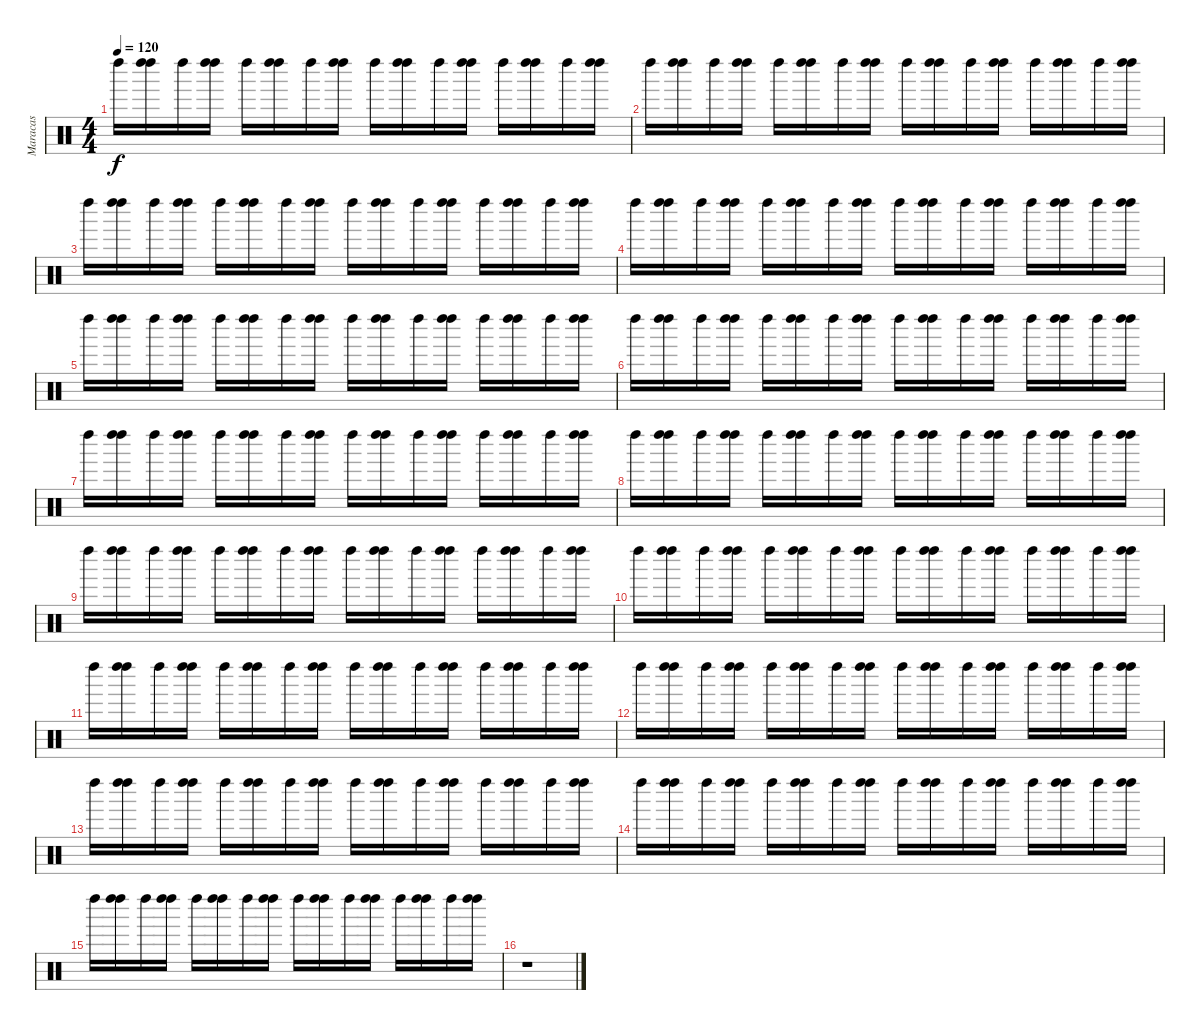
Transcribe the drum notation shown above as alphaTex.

\track ("Maracas" "Maracas") {instrument percussion}
\staff {score}
\articulation defaults
\ts (4 4)
\tempo 120
\clef neutral
\ks c "Left Maraca (hit)".16{dy f}
("Left Maraca (hit)" "Left Maraca (hit)").16 "Left Maraca (hit)".16 ("Left Maraca (hit)" "Left Maraca (hit)").16 "Left Maraca (hit)".16 ("Left Maraca (hit)" "Left Maraca (hit)").16 "Left Maraca (hit)".16 ("Left Maraca (hit)" "Left Maraca (hit)").16 "Left Maraca (hit)".16 ("Left Maraca (hit)" "Left Maraca (hit)").16 "Left Maraca (hit)".16 ("Left Maraca (hit)" "Left Maraca (hit)").16 "Left Maraca (hit)".16 ("Left Maraca (hit)" "Left Maraca (hit)").16 "Left Maraca (hit)".16 ("Left Maraca (hit)" "Left Maraca (hit)").16 |
"Left Maraca (hit)".16 ("Left Maraca (hit)" "Left Maraca (hit)").16 "Left Maraca (hit)".16 ("Left Maraca (hit)" "Left Maraca (hit)").16 "Left Maraca (hit)".16 ("Left Maraca (hit)" "Left Maraca (hit)").16 "Left Maraca (hit)".16 ("Left Maraca (hit)" "Left Maraca (hit)").16 "Left Maraca (hit)".16 ("Left Maraca (hit)" "Left Maraca (hit)").16 "Left Maraca (hit)".16 ("Left Maraca (hit)" "Left Maraca (hit)").16 "Left Maraca (hit)".16 ("Left Maraca (hit)" "Left Maraca (hit)").16 "Left Maraca (hit)".16 ("Left Maraca (hit)" "Left Maraca (hit)").16 |
"Left Maraca (hit)".16 ("Left Maraca (hit)" "Left Maraca (hit)").16 "Left Maraca (hit)".16 ("Left Maraca (hit)" "Left Maraca (hit)").16 "Left Maraca (hit)".16 ("Left Maraca (hit)" "Left Maraca (hit)").16 "Left Maraca (hit)".16 ("Left Maraca (hit)" "Left Maraca (hit)").16 "Left Maraca (hit)".16 ("Left Maraca (hit)" "Left Maraca (hit)").16 "Left Maraca (hit)".16 ("Left Maraca (hit)" "Left Maraca (hit)").16 "Left Maraca (hit)".16 ("Left Maraca (hit)" "Left Maraca (hit)").16 "Left Maraca (hit)".16 ("Left Maraca (hit)" "Left Maraca (hit)").16 |
"Left Maraca (hit)".16 ("Left Maraca (hit)" "Left Maraca (hit)").16 "Left Maraca (hit)".16 ("Left Maraca (hit)" "Left Maraca (hit)").16 "Left Maraca (hit)".16 ("Left Maraca (hit)" "Left Maraca (hit)").16 "Left Maraca (hit)".16 ("Left Maraca (hit)" "Left Maraca (hit)").16 "Left Maraca (hit)".16 ("Left Maraca (hit)" "Left Maraca (hit)").16 "Left Maraca (hit)".16 ("Left Maraca (hit)" "Left Maraca (hit)").16 "Left Maraca (hit)".16 ("Left Maraca (hit)" "Left Maraca (hit)").16 "Left Maraca (hit)".16 ("Left Maraca (hit)" "Left Maraca (hit)").16 |
"Left Maraca (hit)".16 ("Left Maraca (hit)" "Left Maraca (hit)").16 "Left Maraca (hit)".16 ("Left Maraca (hit)" "Left Maraca (hit)").16 "Left Maraca (hit)".16 ("Left Maraca (hit)" "Left Maraca (hit)").16 "Left Maraca (hit)".16 ("Left Maraca (hit)" "Left Maraca (hit)").16 "Left Maraca (hit)".16 ("Left Maraca (hit)" "Left Maraca (hit)").16 "Left Maraca (hit)".16 ("Left Maraca (hit)" "Left Maraca (hit)").16 "Left Maraca (hit)".16 ("Left Maraca (hit)" "Left Maraca (hit)").16 "Left Maraca (hit)".16 ("Left Maraca (hit)" "Left Maraca (hit)").16 |
"Left Maraca (hit)".16 ("Left Maraca (hit)" "Left Maraca (hit)").16 "Left Maraca (hit)".16 ("Left Maraca (hit)" "Left Maraca (hit)").16 "Left Maraca (hit)".16 ("Left Maraca (hit)" "Left Maraca (hit)").16 "Left Maraca (hit)".16 ("Left Maraca (hit)" "Left Maraca (hit)").16 "Left Maraca (hit)".16 ("Left Maraca (hit)" "Left Maraca (hit)").16 "Left Maraca (hit)".16 ("Left Maraca (hit)" "Left Maraca (hit)").16 "Left Maraca (hit)".16 ("Left Maraca (hit)" "Left Maraca (hit)").16 "Left Maraca (hit)".16 ("Left Maraca (hit)" "Left Maraca (hit)").16 |
"Left Maraca (hit)".16 ("Left Maraca (hit)" "Left Maraca (hit)").16 "Left Maraca (hit)".16 ("Left Maraca (hit)" "Left Maraca (hit)").16 "Left Maraca (hit)".16 ("Left Maraca (hit)" "Left Maraca (hit)").16 "Left Maraca (hit)".16 ("Left Maraca (hit)" "Left Maraca (hit)").16 "Left Maraca (hit)".16 ("Left Maraca (hit)" "Left Maraca (hit)").16 "Left Maraca (hit)".16 ("Left Maraca (hit)" "Left Maraca (hit)").16 "Left Maraca (hit)".16 ("Left Maraca (hit)" "Left Maraca (hit)").16 "Left Maraca (hit)".16 ("Left Maraca (hit)" "Left Maraca (hit)").16 |
"Left Maraca (hit)".16 ("Left Maraca (hit)" "Left Maraca (hit)").16 "Left Maraca (hit)".16 ("Left Maraca (hit)" "Left Maraca (hit)").16 "Left Maraca (hit)".16 ("Left Maraca (hit)" "Left Maraca (hit)").16 "Left Maraca (hit)".16 ("Left Maraca (hit)" "Left Maraca (hit)").16 "Left Maraca (hit)".16 ("Left Maraca (hit)" "Left Maraca (hit)").16 "Left Maraca (hit)".16 ("Left Maraca (hit)" "Left Maraca (hit)").16 "Left Maraca (hit)".16 ("Left Maraca (hit)" "Left Maraca (hit)").16 "Left Maraca (hit)".16 ("Left Maraca (hit)" "Left Maraca (hit)").16 |
"Left Maraca (hit)".16 ("Left Maraca (hit)" "Left Maraca (hit)").16 "Left Maraca (hit)".16 ("Left Maraca (hit)" "Left Maraca (hit)").16 "Left Maraca (hit)".16 ("Left Maraca (hit)" "Left Maraca (hit)").16 "Left Maraca (hit)".16 ("Left Maraca (hit)" "Left Maraca (hit)").16 "Left Maraca (hit)".16 ("Left Maraca (hit)" "Left Maraca (hit)").16 "Left Maraca (hit)".16 ("Left Maraca (hit)" "Left Maraca (hit)").16 "Left Maraca (hit)".16 ("Left Maraca (hit)" "Left Maraca (hit)").16 "Left Maraca (hit)".16 ("Left Maraca (hit)" "Left Maraca (hit)").16 |
"Left Maraca (hit)".16 ("Left Maraca (hit)" "Left Maraca (hit)").16 "Left Maraca (hit)".16 ("Left Maraca (hit)" "Left Maraca (hit)").16 "Left Maraca (hit)".16 ("Left Maraca (hit)" "Left Maraca (hit)").16 "Left Maraca (hit)".16 ("Left Maraca (hit)" "Left Maraca (hit)").16 "Left Maraca (hit)".16 ("Left Maraca (hit)" "Left Maraca (hit)").16 "Left Maraca (hit)".16 ("Left Maraca (hit)" "Left Maraca (hit)").16 "Left Maraca (hit)".16 ("Left Maraca (hit)" "Left Maraca (hit)").16 "Left Maraca (hit)".16 ("Left Maraca (hit)" "Left Maraca (hit)").16 |
"Left Maraca (hit)".16 ("Left Maraca (hit)" "Left Maraca (hit)").16 "Left Maraca (hit)".16 ("Left Maraca (hit)" "Left Maraca (hit)").16 "Left Maraca (hit)".16 ("Left Maraca (hit)" "Left Maraca (hit)").16 "Left Maraca (hit)".16 ("Left Maraca (hit)" "Left Maraca (hit)").16 "Left Maraca (hit)".16 ("Left Maraca (hit)" "Left Maraca (hit)").16 "Left Maraca (hit)".16 ("Left Maraca (hit)" "Left Maraca (hit)").16 "Left Maraca (hit)".16 ("Left Maraca (hit)" "Left Maraca (hit)").16 "Left Maraca (hit)".16 ("Left Maraca (hit)" "Left Maraca (hit)").16 |
"Left Maraca (hit)".16 ("Left Maraca (hit)" "Left Maraca (hit)").16 "Left Maraca (hit)".16 ("Left Maraca (hit)" "Left Maraca (hit)").16 "Left Maraca (hit)".16 ("Left Maraca (hit)" "Left Maraca (hit)").16 "Left Maraca (hit)".16 ("Left Maraca (hit)" "Left Maraca (hit)").16 "Left Maraca (hit)".16 ("Left Maraca (hit)" "Left Maraca (hit)").16 "Left Maraca (hit)".16 ("Left Maraca (hit)" "Left Maraca (hit)").16 "Left Maraca (hit)".16 ("Left Maraca (hit)" "Left Maraca (hit)").16 "Left Maraca (hit)".16 ("Left Maraca (hit)" "Left Maraca (hit)").16 |
"Left Maraca (hit)".16 ("Left Maraca (hit)" "Left Maraca (hit)").16 "Left Maraca (hit)".16 ("Left Maraca (hit)" "Left Maraca (hit)").16 "Left Maraca (hit)".16 ("Left Maraca (hit)" "Left Maraca (hit)").16 "Left Maraca (hit)".16 ("Left Maraca (hit)" "Left Maraca (hit)").16 "Left Maraca (hit)".16 ("Left Maraca (hit)" "Left Maraca (hit)").16 "Left Maraca (hit)".16 ("Left Maraca (hit)" "Left Maraca (hit)").16 "Left Maraca (hit)".16 ("Left Maraca (hit)" "Left Maraca (hit)").16 "Left Maraca (hit)".16 ("Left Maraca (hit)" "Left Maraca (hit)").16 |
"Left Maraca (hit)".16 ("Left Maraca (hit)" "Left Maraca (hit)").16 "Left Maraca (hit)".16 ("Left Maraca (hit)" "Left Maraca (hit)").16 "Left Maraca (hit)".16 ("Left Maraca (hit)" "Left Maraca (hit)").16 "Left Maraca (hit)".16 ("Left Maraca (hit)" "Left Maraca (hit)").16 "Left Maraca (hit)".16 ("Left Maraca (hit)" "Left Maraca (hit)").16 "Left Maraca (hit)".16 ("Left Maraca (hit)" "Left Maraca (hit)").16 "Left Maraca (hit)".16 ("Left Maraca (hit)" "Left Maraca (hit)").16 "Left Maraca (hit)".16 ("Left Maraca (hit)" "Left Maraca (hit)").16 |
"Left Maraca (hit)".16 ("Left Maraca (hit)" "Left Maraca (hit)").16 "Left Maraca (hit)".16 ("Left Maraca (hit)" "Left Maraca (hit)").16 "Left Maraca (hit)".16 ("Left Maraca (hit)" "Left Maraca (hit)").16 "Left Maraca (hit)".16 ("Left Maraca (hit)" "Left Maraca (hit)").16 "Left Maraca (hit)".16 ("Left Maraca (hit)" "Left Maraca (hit)").16 "Left Maraca (hit)".16 ("Left Maraca (hit)" "Left Maraca (hit)").16 "Left Maraca (hit)".16 ("Left Maraca (hit)" "Left Maraca (hit)").16 "Left Maraca (hit)".16 ("Left Maraca (hit)" "Left Maraca (hit)").16 |
r.1
